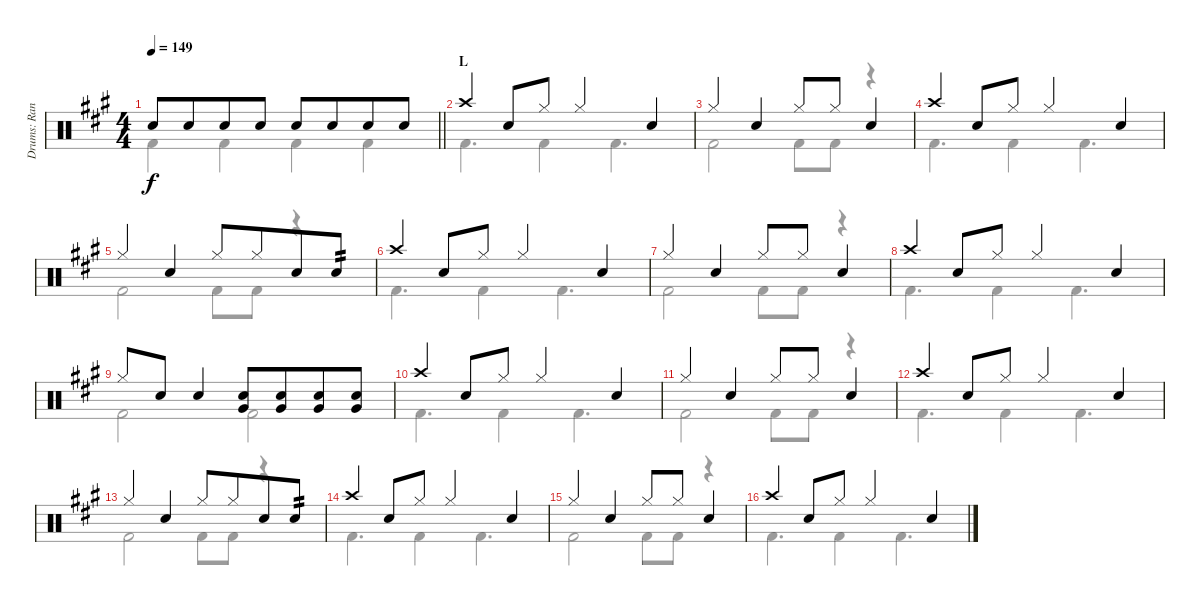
\track ("Drums: Randy" "Drums: Ran") {instrument percussion}
\staff {score}
\articulation defaults
\voice
\ts (4 4)
\tempo 149
\clef neutral
\barLineRight lightlight
\ks a "Snare (hit) 2".8{dy f} "Snare (hit) 2".8{beam merge} "Snare (hit) 2".8 "Snare (hit) 2".8 "Snare (hit) 2".8 "Snare (hit) 2".8{beam merge} "Snare (hit) 2".8 "Snare (hit) 2".8
|
\section ("" "L")
"Crash high (hit)".4 "Snare (hit) 2".8 "Hi-Hat (closed)".8 "Hi-Hat (closed)".4 "Snare (hit) 2".4 |
"Hi-Hat (closed)".4 "Snare (hit) 2".4 "Hi-Hat (closed)".8 "Hi-Hat (closed)".8 "Snare (hit) 2".4 |
"Crash high (hit)".4 "Snare (hit) 2".8 "Hi-Hat (closed)".8 "Hi-Hat (closed)".4 "Snare (hit) 2".4 |
"Hi-Hat (closed)".4 "Snare (hit) 2".4 "Hi-Hat (closed)".8 "Hi-Hat (closed)".8{beam merge} "Snare (hit) 2".8 "Snare (hit) 2".8{tp 2} |
"Crash high (hit)".4 "Snare (hit) 2".8 "Hi-Hat (closed)".8 "Hi-Hat (closed)".4 "Snare (hit) 2".4 |
"Hi-Hat (closed)".4 "Snare (hit) 2".4 "Hi-Hat (closed)".8 "Hi-Hat (closed)".8 "Snare (hit) 2".4 |
"Crash high (hit)".4 "Snare (hit) 2".8 "Hi-Hat (closed)".8 "Hi-Hat (closed)".4 "Snare (hit) 2".4 |
"Hi-Hat (closed)".8 "Snare (hit) 2".8 "Snare (hit) 2".4 ("Snare (hit) 2" "Very Low Tom (hit)").8{beam merge} ("Snare (hit) 2" "Very Low Tom (hit)").8{beam merge} ("Snare (hit) 2" "Very Low Tom (hit)").8{beam merge} ("Snare (hit) 2" "Very Low Tom (hit)").8 |
"Crash high (hit)".4 "Snare (hit) 2".8 "Hi-Hat (closed)".8 "Hi-Hat (closed)".4 "Snare (hit) 2".4 |
"Hi-Hat (closed)".4 "Snare (hit) 2".4 "Hi-Hat (closed)".8 "Hi-Hat (closed)".8 "Snare (hit) 2".4 |
"Crash high (hit)".4 "Snare (hit) 2".8 "Hi-Hat (closed)".8 "Hi-Hat (closed)".4 "Snare (hit) 2".4 |
"Hi-Hat (closed)".4 "Snare (hit) 2".4 "Hi-Hat (closed)".8 "Hi-Hat (closed)".8{beam merge} "Snare (hit) 2".8 "Snare (hit) 2".8{tp 2} |
"Crash high (hit)".4 "Snare (hit) 2".8 "Hi-Hat (closed)".8 "Hi-Hat (closed)".4 "Snare (hit) 2".4 |
"Hi-Hat (closed)".4 "Snare (hit) 2".4 "Hi-Hat (closed)".8 "Hi-Hat (closed)".8 "Snare (hit) 2".4 |
"Crash high (hit)".4 "Snare (hit) 2".8 "Hi-Hat (closed)".8 "Hi-Hat (closed)".4 "Snare (hit) 2".4
\voice
\clef neutral
\ottava regular
\simile none
\barLineRight lightlight
\ks a "Kick (hit) 2".4{dy f} "Kick (hit) 2".4 "Kick (hit) 2".4 "Kick (hit) 2".4
|
"Kick (hit) 2".4{d} "Kick (hit) 2".4 "Kick (hit) 2".4{d} |
"Kick (hit) 2".2 "Kick (hit) 2".8 "Kick (hit) 2".8 r.4 |
"Kick (hit) 2".4{d} "Kick (hit) 2".4 "Kick (hit) 2".4{d} |
"Kick (hit) 2".2 "Kick (hit) 2".8 "Kick (hit) 2".8 r.4 |
"Kick (hit) 2".4{d} "Kick (hit) 2".4 "Kick (hit) 2".4{d} |
"Kick (hit) 2".2 "Kick (hit) 2".8 "Kick (hit) 2".8 r.4 |
"Kick (hit) 2".4{d} "Kick (hit) 2".4 "Kick (hit) 2".4{d} |
"Kick (hit) 2".2 "Kick (hit) 2".2 |
"Kick (hit) 2".4{d} "Kick (hit) 2".4 "Kick (hit) 2".4{d} |
"Kick (hit) 2".2 "Kick (hit) 2".8 "Kick (hit) 2".8 r.4 |
"Kick (hit) 2".4{d} "Kick (hit) 2".4 "Kick (hit) 2".4{d} |
"Kick (hit) 2".2 "Kick (hit) 2".8 "Kick (hit) 2".8 r.4 |
"Kick (hit) 2".4{d} "Kick (hit) 2".4 "Kick (hit) 2".4{d} |
"Kick (hit) 2".2 "Kick (hit) 2".8 "Kick (hit) 2".8 r.4 |
"Kick (hit) 2".4{d} "Kick (hit) 2".4 "Kick (hit) 2".4{d}
